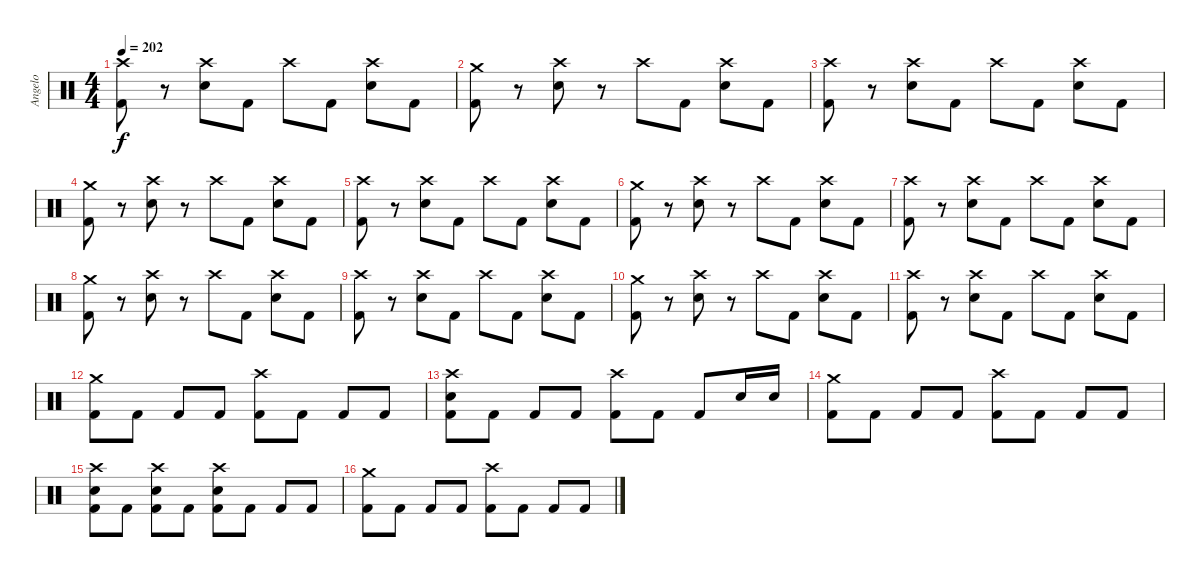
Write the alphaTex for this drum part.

\track ("Angelo" "Angelo") {instrument percussion}
\staff {score}
\articulation defaults
\ts (4 4)
\tempo 202
\clef neutral
\ks c
("Crash high (hit)" "Kick (hit) 2").8{dy f} r.8 ("Crash high (hit)" "Electric Snare (hit)").8 "Kick (hit) 2".8 "Crash high (hit)".8 "Kick (hit) 2".8 ("Crash high (hit)" "Electric Snare (hit)").8 "Kick (hit) 2".8 |
("Crash medium (hit)" "Kick (hit) 2").8 r.8 ("Crash high (hit)" "Electric Snare (hit)").8 r.8 "Crash high (hit)".8 "Kick (hit) 2".8 ("Crash high (hit)" "Electric Snare (hit)").8 "Kick (hit) 2".8 |
("Crash high (hit)" "Kick (hit) 2").8 r.8 ("Crash high (hit)" "Electric Snare (hit)").8 "Kick (hit) 2".8 "Crash high (hit)".8 "Kick (hit) 2".8 ("Crash high (hit)" "Electric Snare (hit)").8 "Kick (hit) 2".8 |
("Crash medium (hit)" "Kick (hit) 2").8 r.8 ("Crash high (hit)" "Electric Snare (hit)").8 r.8 "Crash high (hit)".8 "Kick (hit) 2".8 ("Crash high (hit)" "Electric Snare (hit)").8 "Kick (hit) 2".8 |
("Crash high (hit)" "Kick (hit) 2").8 r.8 ("Crash high (hit)" "Electric Snare (hit)").8 "Kick (hit) 2".8 "Crash high (hit)".8 "Kick (hit) 2".8 ("Crash high (hit)" "Electric Snare (hit)").8 "Kick (hit) 2".8 |
("Crash medium (hit)" "Kick (hit) 2").8 r.8 ("Crash high (hit)" "Electric Snare (hit)").8 r.8 "Crash high (hit)".8 "Kick (hit) 2".8 ("Crash high (hit)" "Electric Snare (hit)").8 "Kick (hit) 2".8 |
("Crash high (hit)" "Kick (hit) 2").8 r.8 ("Crash high (hit)" "Electric Snare (hit)").8 "Kick (hit) 2".8 "Crash high (hit)".8 "Kick (hit) 2".8 ("Crash high (hit)" "Electric Snare (hit)").8 "Kick (hit) 2".8 |
("Crash medium (hit)" "Kick (hit) 2").8 r.8 ("Crash high (hit)" "Electric Snare (hit)").8 r.8 "Crash high (hit)".8 "Kick (hit) 2".8 ("Crash high (hit)" "Electric Snare (hit)").8 "Kick (hit) 2".8 |
("Crash high (hit)" "Kick (hit) 2").8 r.8 ("Crash high (hit)" "Electric Snare (hit)").8 "Kick (hit) 2".8 "Crash high (hit)".8 "Kick (hit) 2".8 ("Crash high (hit)" "Electric Snare (hit)").8 "Kick (hit) 2".8 |
("Crash medium (hit)" "Kick (hit) 2").8 r.8 ("Crash high (hit)" "Electric Snare (hit)").8 r.8 "Crash high (hit)".8 "Kick (hit) 2".8 ("Crash high (hit)" "Electric Snare (hit)").8 "Kick (hit) 2".8 |
("Crash high (hit)" "Kick (hit) 2").8 r.8 ("Crash high (hit)" "Electric Snare (hit)").8 "Kick (hit) 2".8 "Crash high (hit)".8 "Kick (hit) 2".8 ("Crash high (hit)" "Electric Snare (hit)").8 "Kick (hit) 2".8 |
("Crash medium (hit)" "Kick (hit) 2").8 "Kick (hit) 2".8 "Kick (hit) 2".8 "Kick (hit) 2".8 ("Crash high (hit)" "Kick (hit) 2").8 "Kick (hit) 2".8 "Kick (hit) 2".8 "Kick (hit) 2".8 |
("Crash high (hit)" "Electric Snare (hit)" "Kick (hit) 2").8 "Kick (hit) 2".8 "Kick (hit) 2".8 "Kick (hit) 2".8 ("Crash high (hit)" "Kick (hit) 2").8 "Kick (hit) 2".8 "Kick (hit) 2".8 "Electric Snare (hit)".16 "Electric Snare (hit)".16 |
("Crash medium (hit)" "Kick (hit) 2").8 "Kick (hit) 2".8 "Kick (hit) 2".8 "Kick (hit) 2".8 ("Crash high (hit)" "Kick (hit) 2").8 "Kick (hit) 2".8 "Kick (hit) 2".8 "Kick (hit) 2".8 |
("Crash high (hit)" "Electric Snare (hit)" "Kick (hit) 2").8 "Kick (hit) 2".8 ("Crash high (hit)" "Electric Snare (hit)" "Kick (hit) 2").8 "Kick (hit) 2".8 ("Crash high (hit)" "Electric Snare (hit)" "Kick (hit) 2").8 "Kick (hit) 2".8 "Kick (hit) 2".8 "Kick (hit) 2".8 |
("Crash medium (hit)" "Kick (hit) 2").8 "Kick (hit) 2".8 "Kick (hit) 2".8 "Kick (hit) 2".8 ("Crash high (hit)" "Kick (hit) 2").8 "Kick (hit) 2".8 "Kick (hit) 2".8 "Kick (hit) 2".8
